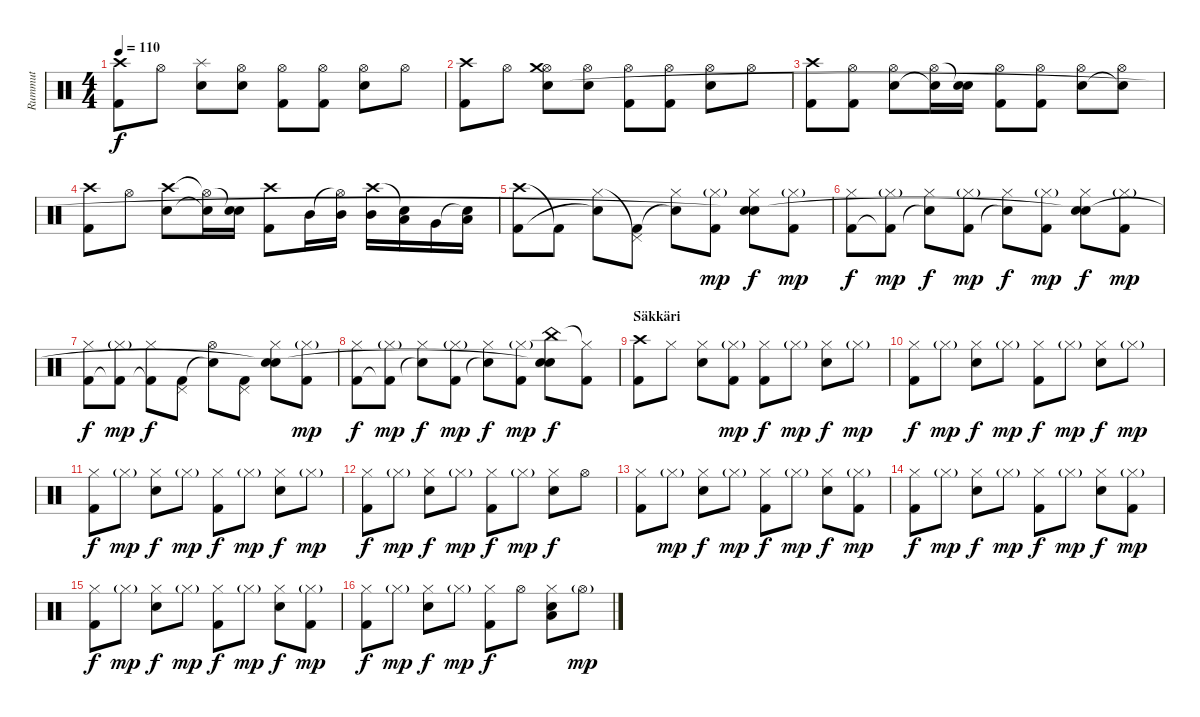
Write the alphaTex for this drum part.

\track ("Rummut" "Rummut") {instrument percussion}
\staff {score}
\articulation defaults
\ts (4 4)
\tempo 110
\clef neutral
\ks c
("Crash high (hit)" "Kick (hit) 2").8{dy f} "Hi-Hat (open)".8 ("Splash (hit)" "Snare (hit) 2").8 ("Hi-Hat (open)" "Snare (hit) 2").8 ("Hi-Hat (open)" "Kick (hit) 2").8 ("Hi-Hat (open)" "Kick (hit) 2").8 ("Hi-Hat (open)" "Snare (hit) 2").8 "Hi-Hat (open)".8 |
("Crash high (hit)" "Kick (hit) 2").8 "Hi-Hat (open)".8 ("Hi-Hat (open)" "Crash medium (hit)" "Snare (hit) 2").8 ("Hi-Hat (open)" "Snare (hit) 2").8 ("Hi-Hat (open)" "Kick (hit) 2").8 ("Hi-Hat (open)" "Kick (hit) 2").8 ("Hi-Hat (open)" "Snare (hit) 2").8 "Hi-Hat (open)".8 |
("Crash high (hit)" "Kick (hit) 2").8 ("Hi-Hat (open)" "Kick (hit) 2").8 ("Hi-Hat (open)" "Snare (hit) 2").8 ("Hi-Hat (open)" "Snare (hit) 2"{t}).16 ("Snare (hit)"{t} "Snare (hit) 2").16 ("Hi-Hat (open)" "Kick (hit) 2").8 ("Hi-Hat (open)" "Kick (hit) 2").8 ("Hi-Hat (open)" "Snare (hit) 2").8 ("Hi-Hat (open)" "Snare (hit)"{t}).8 |
("Crash high (hit)" "Kick (hit) 2").8 "Hi-Hat (open)".8 ("Crash high (hit)" "Snare (hit) 2").8 ("Hi-Hat (open)"{t} "Snare (hit) 2"{t}).16 ("Snare (hit)"{t} "Snare (hit) 2").16 ("Crash high (hit)" "Kick (hit) 2").8 "Mid Tom (hit)".16 ("Hi-Hat (open)"{t} "Mid Tom (hit)").16 ("Crash high (hit)" "Mid Tom (hit)").16 ("Snare (hit)"{t} "Low Tom (hit)").16 "Very Low Tom (hit)".16 ("Snare (hit)"{t} "Low Floor Tom (hit)").16 |
("Crash high (hit)" "Kick (hit) 2").8 "Kick (hit) 2"{t}.8 ("Hi-Hat (closed)" "Snare (hit)"{t}).8 ("Pedal Hi-Hat (hit)"{t} "Kick (hit) 2").8 ("Hi-Hat (closed)" "Snare (hit)"{t}).8 ("Hi-Hat (closed)"{g} "Kick (hit) 2").8{dy mp} ("Hi-Hat (closed)" "Snare (hit) 2" "Snare (hit)"{t}).8{dy f} ("Hi-Hat (closed)"{g} "Kick (hit) 2").8{dy mp} |
("Hi-Hat (closed)" "Kick (hit) 2").8{dy f} ("Hi-Hat (closed)"{g} "Kick (hit) 2"{t}).8{dy mp} ("Hi-Hat (closed)" "Snare (hit)"{t}).8{dy f} ("Hi-Hat (closed)"{g} "Kick (hit) 2").8{dy mp} ("Hi-Hat (closed)" "Snare (hit)"{t}).8{dy f} ("Hi-Hat (closed)"{g} "Kick (hit) 2").8{dy mp} ("Hi-Hat (closed)" "Snare (hit) 2" "Snare (hit)"{t}).8{dy f} ("Hi-Hat (closed)"{g} "Kick (hit) 2").8{dy mp} |
("Hi-Hat (closed)" "Kick (hit) 2").8{dy f} ("Hi-Hat (closed)"{g} "Kick (hit) 2"{t}).8{dy mp} ("Hi-Hat (closed)" "Kick (hit) 2"{t}).8{dy f} ("Pedal Hi-Hat (hit)" "Kick (hit) 2").8 ("Hi-Hat (open)" "Snare (hit)"{t}).8 ("Pedal Hi-Hat (hit)" "Kick (hit) 2").8 ("Hi-Hat (closed)" "Snare (hit) 2" "Snare (hit)"{t}).8 ("Hi-Hat (closed)"{g} "Kick (hit) 2").8{dy mp} |
("Hi-Hat (closed)" "Kick (hit) 2").8{dy f} ("Hi-Hat (closed)"{g} "Kick (hit) 2"{t}).8{dy mp} ("Hi-Hat (closed)" "Snare (hit)"{t}).8{dy f} ("Hi-Hat (closed)"{g} "Kick (hit) 2").8{dy mp} ("Hi-Hat (closed)" "Snare (hit)"{t}).8{dy f} ("Hi-Hat (closed)"{g} "Kick (hit) 2").8{dy mp} ("China (hit)" "Snare (hit) 2" "Snare (hit)"{t}).8{dy f} ("Hi-Hat (closed)"{t} "Kick (hit) 2").8 |
\section ("" "Säkkäri")
("Crash high (hit)" "Kick (hit) 2").8 "Hi-Hat (closed)".8 ("Hi-Hat (closed)" "Snare (hit) 2").8 ("Hi-Hat (closed)"{g} "Kick (hit) 2").8{dy mp} ("Hi-Hat (closed)" "Kick (hit) 2").8{dy f} "Hi-Hat (closed)"{g}.8{dy mp} ("Hi-Hat (closed)" "Snare (hit) 2").8{dy f} "Hi-Hat (closed)"{g}.8{dy mp} |
("Hi-Hat (closed)" "Kick (hit) 2").8{dy f} "Hi-Hat (closed)"{g}.8{dy mp} ("Hi-Hat (closed)" "Snare (hit) 2").8{dy f} "Hi-Hat (closed)"{g}.8{dy mp} ("Hi-Hat (closed)" "Kick (hit) 2").8{dy f} "Hi-Hat (closed)"{g}.8{dy mp} ("Hi-Hat (closed)" "Snare (hit) 2").8{dy f} "Hi-Hat (closed)"{g}.8{dy mp} |
("Hi-Hat (closed)" "Kick (hit) 2").8{dy f} "Hi-Hat (closed)"{g}.8{dy mp} ("Hi-Hat (closed)" "Snare (hit) 2").8{dy f} "Hi-Hat (closed)"{g}.8{dy mp} ("Hi-Hat (closed)" "Kick (hit) 2").8{dy f} "Hi-Hat (closed)"{g}.8{dy mp} ("Hi-Hat (closed)" "Snare (hit) 2").8{dy f} "Hi-Hat (closed)"{g}.8{dy mp} |
("Hi-Hat (closed)" "Kick (hit) 2").8{dy f} "Hi-Hat (closed)"{g}.8{dy mp} ("Hi-Hat (closed)" "Snare (hit) 2").8{dy f} "Hi-Hat (closed)"{g}.8{dy mp} ("Hi-Hat (closed)" "Kick (hit) 2").8{dy f} "Hi-Hat (closed)"{g}.8{dy mp} ("Hi-Hat (closed)" "Snare (hit) 2").8{dy f} "Hi-Hat (open)".8 |
("Hi-Hat (closed)" "Kick (hit) 2").8 "Hi-Hat (closed)"{g}.8{dy mp} ("Hi-Hat (closed)" "Snare (hit) 2").8{dy f} "Hi-Hat (closed)"{g}.8{dy mp} ("Hi-Hat (closed)" "Kick (hit) 2").8{dy f} "Hi-Hat (closed)"{g}.8{dy mp} ("Hi-Hat (closed)" "Snare (hit) 2").8{dy f} ("Hi-Hat (closed)"{g} "Kick (hit) 2").8{dy mp} |
("Hi-Hat (closed)" "Kick (hit) 2").8{dy f} "Hi-Hat (closed)"{g}.8{dy mp} ("Hi-Hat (closed)" "Snare (hit) 2").8{dy f} "Hi-Hat (closed)"{g}.8{dy mp} ("Hi-Hat (closed)" "Kick (hit) 2").8{dy f} "Hi-Hat (closed)"{g}.8{dy mp} ("Hi-Hat (closed)" "Snare (hit) 2").8{dy f} ("Hi-Hat (closed)"{g} "Kick (hit) 2").8{dy mp} |
("Hi-Hat (closed)" "Kick (hit) 2").8{dy f} "Hi-Hat (closed)"{g}.8{dy mp} ("Hi-Hat (closed)" "Snare (hit) 2").8{dy f} "Hi-Hat (closed)"{g}.8{dy mp} ("Hi-Hat (closed)" "Kick (hit) 2").8{dy f} "Hi-Hat (closed)"{g}.8{dy mp} ("Hi-Hat (closed)" "Snare (hit) 2").8{dy f} ("Hi-Hat (closed)"{g} "Kick (hit) 2").8{dy mp} |
("Hi-Hat (closed)" "Kick (hit) 2").8{dy f} "Hi-Hat (closed)"{g}.8{dy mp} ("Hi-Hat (closed)" "Snare (hit) 2").8{dy f} "Hi-Hat (closed)"{g}.8{dy mp} ("Hi-Hat (closed)" "Kick (hit) 2").8{dy f} "Hi-Hat (open)".8 ("Hi-Hat (closed)" "Low Tom (hit)" "Snare (hit) 2").8 "Hi-Hat (open)"{g}.8{dy mp}
